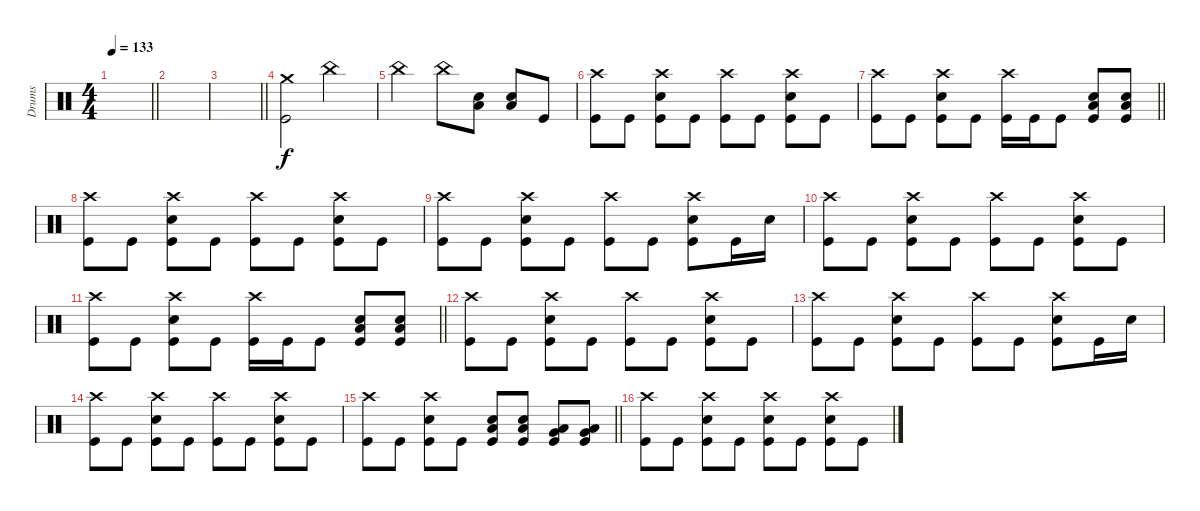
\track ("Drums" "Drums") {instrument percussion}
\staff
\articulation defaults
\ts (4 4)
\tempo 133
\clef neutral
\barLineRight lightlight
\ks c
|
|
\barLineRight lightlight
|
\section ("" "")
("Crash medium (hit)" "Kick (hit)").2 "China (hit)".2 |
"China (hit)".2 "China (hit)".8 ("Low Floor Tom (hit)" "Electric Snare (hit)").8 ("Low Floor Tom (hit)" "Electric Snare (hit)").8 "Kick (hit)".8 |
("Crash high (hit)" "Kick (hit)").8 "Kick (hit)".8 ("Crash high (hit)" "Electric Snare (hit)" "Kick (hit)").8 "Kick (hit)".8 ("Crash high (hit)" "Kick (hit)").8 "Kick (hit)".8 ("Crash high (hit)" "Electric Snare (hit)" "Kick (hit)").8 "Kick (hit)".8 |
\barLineRight lightlight
("Crash high (hit)" "Kick (hit)").8 "Kick (hit)".8 ("Crash high (hit)" "Electric Snare (hit)" "Kick (hit)").8 "Kick (hit)".8 ("Crash high (hit)" "Kick (hit)").16 "Kick (hit)".16 "Kick (hit)".8 ("Low Floor Tom (hit)" "Electric Snare (hit)" "Kick (hit)").8 ("Low Floor Tom (hit)" "Electric Snare (hit)" "Kick (hit)").8 |
("Crash high (hit)" "Kick (hit)").8 "Kick (hit)".8 ("Crash high (hit)" "Electric Snare (hit)" "Kick (hit)").8 "Kick (hit)".8 ("Crash high (hit)" "Kick (hit)").8 "Kick (hit)".8 ("Crash high (hit)" "Electric Snare (hit)" "Kick (hit)").8 "Kick (hit)".8 |
("Crash high (hit)" "Kick (hit)").8 "Kick (hit)".8 ("Crash high (hit)" "Electric Snare (hit)" "Kick (hit)").8 "Kick (hit)".8 ("Crash high (hit)" "Kick (hit)").8 "Kick (hit)".8 ("Crash high (hit)" "Electric Snare (hit)" "Kick (hit)").8 "Kick (hit)".16 "Electric Snare (hit)".16 |
("Crash high (hit)" "Kick (hit)").8 "Kick (hit)".8 ("Crash high (hit)" "Electric Snare (hit)" "Kick (hit)").8 "Kick (hit)".8 ("Crash high (hit)" "Kick (hit)").8 "Kick (hit)".8 ("Crash high (hit)" "Electric Snare (hit)" "Kick (hit)").8 "Kick (hit)".8 |
\barLineRight lightlight
("Crash high (hit)" "Kick (hit)").8 "Kick (hit)".8 ("Crash high (hit)" "Electric Snare (hit)" "Kick (hit)").8 "Kick (hit)".8 ("Crash high (hit)" "Kick (hit)").16 "Kick (hit)".16 "Kick (hit)".8 ("Low Floor Tom (hit)" "Electric Snare (hit)" "Kick (hit)").8 ("Low Floor Tom (hit)" "Electric Snare (hit)" "Kick (hit)").8 |
("Crash high (hit)" "Kick (hit)").8 "Kick (hit)".8 ("Crash high (hit)" "Electric Snare (hit)" "Kick (hit)").8 "Kick (hit)".8 ("Crash high (hit)" "Kick (hit)").8 "Kick (hit)".8 ("Crash high (hit)" "Electric Snare (hit)" "Kick (hit)").8 "Kick (hit)".8 |
("Crash high (hit)" "Kick (hit)").8 "Kick (hit)".8 ("Crash high (hit)" "Electric Snare (hit)" "Kick (hit)").8 "Kick (hit)".8 ("Crash high (hit)" "Kick (hit)").8 "Kick (hit)".8 ("Crash high (hit)" "Electric Snare (hit)" "Kick (hit)").8 "Kick (hit)".16 "Electric Snare (hit)".16 |
("Crash high (hit)" "Kick (hit)").8 "Kick (hit)".8 ("Crash high (hit)" "Electric Snare (hit)" "Kick (hit)").8 "Kick (hit)".8 ("Crash high (hit)" "Kick (hit)").8 "Kick (hit)".8 ("Crash high (hit)" "Electric Snare (hit)" "Kick (hit)").8 "Kick (hit)".8 |
\barLineRight lightlight
("Crash high (hit)" "Kick (hit)").8 "Kick (hit)".8 ("Crash high (hit)" "Electric Snare (hit)" "Kick (hit)").8 "Kick (hit)".8 ("Low Floor Tom (hit)" "Electric Snare (hit)" "Kick (hit)").8 ("Low Floor Tom (hit)" "Electric Snare (hit)" "Kick (hit)").8 ("Very Low Tom (hit)" "Low Floor Tom (hit)" "Kick (hit)").8 ("Very Low Tom (hit)" "Low Floor Tom (hit)" "Kick (hit)").8 |
("Crash high (hit)" "Kick (hit)").8 "Kick (hit)".8 ("Crash high (hit)" "Electric Snare (hit)" "Kick (hit)").8 "Kick (hit)".8 ("Crash high (hit)" "Electric Snare (hit)" "Kick (hit)").8 "Kick (hit)".8 ("Crash high (hit)" "Electric Snare (hit)" "Kick (hit)").8 "Kick (hit)".8
